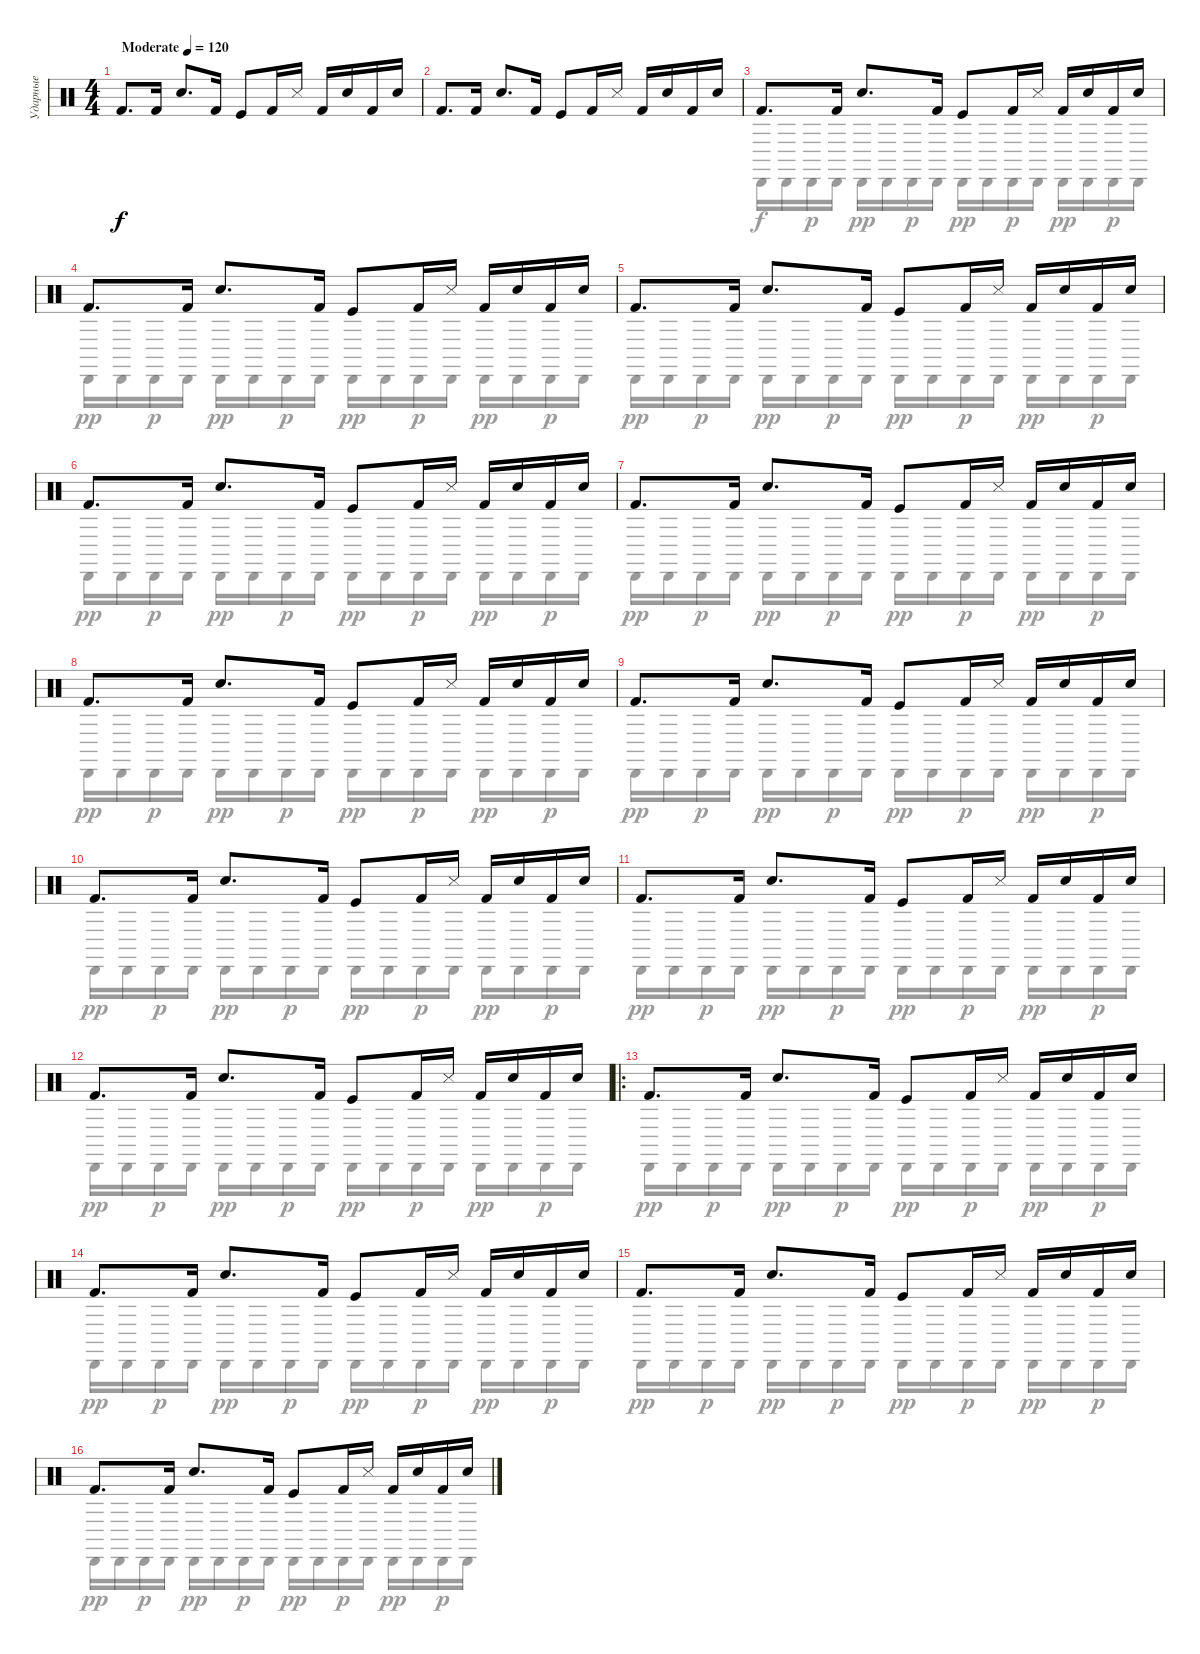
\track ("Ударные" "Ударные") {instrument percussion}
\staff {score}
\articulation defaults
\voice
\ts (4 4)
\tempo (120 "Moderate")
\clef neutral
\ks c "Kick (hit) 2".8{d dy f} "Kick (hit) 2".16 "Electric Snare (hit)".8{d} "Kick (hit) 2".16 "Kick (hit)".8 "Kick (hit) 2".16 "Metronome (hit)".16 "Kick (hit) 2".16 "Electric Snare (hit)".16 "Kick (hit) 2".16 "Electric Snare (hit)".16
|
"Kick (hit) 2".8{d} "Kick (hit) 2".16 "Electric Snare (hit)".8{d} "Kick (hit) 2".16 "Kick (hit)".8 "Kick (hit) 2".16 "Metronome (hit)".16 "Kick (hit) 2".16 "Electric Snare (hit)".16 "Kick (hit) 2".16 "Electric Snare (hit)".16 |
"Kick (hit) 2".8{d} "Kick (hit) 2".16 "Electric Snare (hit)".8{d} "Kick (hit) 2".16 "Kick (hit)".8 "Kick (hit) 2".16 "Metronome (hit)".16 "Kick (hit) 2".16 "Electric Snare (hit)".16 "Kick (hit) 2".16 "Electric Snare (hit)".16 |
"Kick (hit) 2".8{d} "Kick (hit) 2".16 "Electric Snare (hit)".8{d} "Kick (hit) 2".16 "Kick (hit)".8 "Kick (hit) 2".16 "Metronome (hit)".16 "Kick (hit) 2".16 "Electric Snare (hit)".16 "Kick (hit) 2".16 "Electric Snare (hit)".16 |
"Kick (hit) 2".8{d} "Kick (hit) 2".16 "Electric Snare (hit)".8{d} "Kick (hit) 2".16 "Kick (hit)".8 "Kick (hit) 2".16 "Metronome (hit)".16 "Kick (hit) 2".16 "Electric Snare (hit)".16 "Kick (hit) 2".16 "Electric Snare (hit)".16 |
"Kick (hit) 2".8{d} "Kick (hit) 2".16 "Electric Snare (hit)".8{d} "Kick (hit) 2".16 "Kick (hit)".8 "Kick (hit) 2".16 "Metronome (hit)".16 "Kick (hit) 2".16 "Electric Snare (hit)".16 "Kick (hit) 2".16 "Electric Snare (hit)".16 |
"Kick (hit) 2".8{d} "Kick (hit) 2".16 "Electric Snare (hit)".8{d} "Kick (hit) 2".16 "Kick (hit)".8 "Kick (hit) 2".16 "Metronome (hit)".16 "Kick (hit) 2".16 "Electric Snare (hit)".16 "Kick (hit) 2".16 "Electric Snare (hit)".16 |
"Kick (hit) 2".8{d} "Kick (hit) 2".16 "Electric Snare (hit)".8{d} "Kick (hit) 2".16 "Kick (hit)".8 "Kick (hit) 2".16 "Metronome (hit)".16 "Kick (hit) 2".16 "Electric Snare (hit)".16 "Kick (hit) 2".16 "Electric Snare (hit)".16 |
"Kick (hit) 2".8{d} "Kick (hit) 2".16 "Electric Snare (hit)".8{d} "Kick (hit) 2".16 "Kick (hit)".8 "Kick (hit) 2".16 "Metronome (hit)".16 "Kick (hit) 2".16 "Electric Snare (hit)".16 "Kick (hit) 2".16 "Electric Snare (hit)".16 |
"Kick (hit) 2".8{d} "Kick (hit) 2".16 "Electric Snare (hit)".8{d} "Kick (hit) 2".16 "Kick (hit)".8 "Kick (hit) 2".16 "Metronome (hit)".16 "Kick (hit) 2".16 "Electric Snare (hit)".16 "Kick (hit) 2".16 "Electric Snare (hit)".16 |
"Kick (hit) 2".8{d} "Kick (hit) 2".16 "Electric Snare (hit)".8{d} "Kick (hit) 2".16 "Kick (hit)".8 "Kick (hit) 2".16 "Metronome (hit)".16 "Kick (hit) 2".16 "Electric Snare (hit)".16 "Kick (hit) 2".16 "Electric Snare (hit)".16 |
"Kick (hit) 2".8{d} "Kick (hit) 2".16 "Electric Snare (hit)".8{d} "Kick (hit) 2".16 "Kick (hit)".8 "Kick (hit) 2".16 "Metronome (hit)".16 "Kick (hit) 2".16 "Electric Snare (hit)".16 "Kick (hit) 2".16 "Electric Snare (hit)".16 |
\ro "Kick (hit) 2".8{d} "Kick (hit) 2".16 "Electric Snare (hit)".8{d} "Kick (hit) 2".16 "Kick (hit)".8 "Kick (hit) 2".16 "Metronome (hit)".16 "Kick (hit) 2".16 "Electric Snare (hit)".16 "Kick (hit) 2".16 "Electric Snare (hit)".16
|
"Kick (hit) 2".8{d} "Kick (hit) 2".16 "Electric Snare (hit)".8{d} "Kick (hit) 2".16 "Kick (hit)".8 "Kick (hit) 2".16 "Metronome (hit)".16 "Kick (hit) 2".16 "Electric Snare (hit)".16 "Kick (hit) 2".16 "Electric Snare (hit)".16 |
"Kick (hit) 2".8{d} "Kick (hit) 2".16 "Electric Snare (hit)".8{d} "Kick (hit) 2".16 "Kick (hit)".8 "Kick (hit) 2".16 "Metronome (hit)".16 "Kick (hit) 2".16 "Electric Snare (hit)".16 "Kick (hit) 2".16 "Electric Snare (hit)".16 |
"Kick (hit) 2".8{d} "Kick (hit) 2".16 "Electric Snare (hit)".8{d} "Kick (hit) 2".16 "Kick (hit)".8 "Kick (hit) 2".16 "Metronome (hit)".16 "Kick (hit) 2".16 "Electric Snare (hit)".16 "Kick (hit) 2".16 "Electric Snare (hit)".16
\voice
\clef neutral
\ottava regular
\simile none
\ks c
|
|
"Cabasa (hit)".16 "Cabasa (hit)".16 "Cabasa (hit)".16{dy p} "Cabasa (hit)".16 "Cabasa (hit)".16{dy pp} "Cabasa (hit)".16 "Cabasa (hit)".16{dy p} "Cabasa (hit)".16 "Cabasa (hit)".16{dy pp} "Cabasa (hit)".16 "Cabasa (hit)".16{dy p} "Cabasa (hit)".16 "Cabasa (hit)".16{dy pp} "Cabasa (hit)".16 "Cabasa (hit)".16{dy p} "Cabasa (hit)".16 |
"Cabasa (hit)".16{dy pp} "Cabasa (hit)".16 "Cabasa (hit)".16{dy p} "Cabasa (hit)".16 "Cabasa (hit)".16{dy pp} "Cabasa (hit)".16 "Cabasa (hit)".16{dy p} "Cabasa (hit)".16 "Cabasa (hit)".16{dy pp} "Cabasa (hit)".16 "Cabasa (hit)".16{dy p} "Cabasa (hit)".16 "Cabasa (hit)".16{dy pp} "Cabasa (hit)".16 "Cabasa (hit)".16{dy p} "Cabasa (hit)".16 |
"Cabasa (hit)".16{dy pp} "Cabasa (hit)".16 "Cabasa (hit)".16{dy p} "Cabasa (hit)".16 "Cabasa (hit)".16{dy pp} "Cabasa (hit)".16 "Cabasa (hit)".16{dy p} "Cabasa (hit)".16 "Cabasa (hit)".16{dy pp} "Cabasa (hit)".16 "Cabasa (hit)".16{dy p} "Cabasa (hit)".16 "Cabasa (hit)".16{dy pp} "Cabasa (hit)".16 "Cabasa (hit)".16{dy p} "Cabasa (hit)".16 |
"Cabasa (hit)".16{dy pp} "Cabasa (hit)".16 "Cabasa (hit)".16{dy p} "Cabasa (hit)".16 "Cabasa (hit)".16{dy pp} "Cabasa (hit)".16 "Cabasa (hit)".16{dy p} "Cabasa (hit)".16 "Cabasa (hit)".16{dy pp} "Cabasa (hit)".16 "Cabasa (hit)".16{dy p} "Cabasa (hit)".16 "Cabasa (hit)".16{dy pp} "Cabasa (hit)".16 "Cabasa (hit)".16{dy p} "Cabasa (hit)".16 |
"Cabasa (hit)".16{dy pp} "Cabasa (hit)".16 "Cabasa (hit)".16{dy p} "Cabasa (hit)".16 "Cabasa (hit)".16{dy pp} "Cabasa (hit)".16 "Cabasa (hit)".16{dy p} "Cabasa (hit)".16 "Cabasa (hit)".16{dy pp} "Cabasa (hit)".16 "Cabasa (hit)".16{dy p} "Cabasa (hit)".16 "Cabasa (hit)".16{dy pp} "Cabasa (hit)".16 "Cabasa (hit)".16{dy p} "Cabasa (hit)".16 |
"Cabasa (hit)".16{dy pp} "Cabasa (hit)".16 "Cabasa (hit)".16{dy p} "Cabasa (hit)".16 "Cabasa (hit)".16{dy pp} "Cabasa (hit)".16 "Cabasa (hit)".16{dy p} "Cabasa (hit)".16 "Cabasa (hit)".16{dy pp} "Cabasa (hit)".16 "Cabasa (hit)".16{dy p} "Cabasa (hit)".16 "Cabasa (hit)".16{dy pp} "Cabasa (hit)".16 "Cabasa (hit)".16{dy p} "Cabasa (hit)".16 |
"Cabasa (hit)".16{dy pp} "Cabasa (hit)".16 "Cabasa (hit)".16{dy p} "Cabasa (hit)".16 "Cabasa (hit)".16{dy pp} "Cabasa (hit)".16 "Cabasa (hit)".16{dy p} "Cabasa (hit)".16 "Cabasa (hit)".16{dy pp} "Cabasa (hit)".16 "Cabasa (hit)".16{dy p} "Cabasa (hit)".16 "Cabasa (hit)".16{dy pp} "Cabasa (hit)".16 "Cabasa (hit)".16{dy p} "Cabasa (hit)".16 |
"Cabasa (hit)".16{dy pp} "Cabasa (hit)".16 "Cabasa (hit)".16{dy p} "Cabasa (hit)".16 "Cabasa (hit)".16{dy pp} "Cabasa (hit)".16 "Cabasa (hit)".16{dy p} "Cabasa (hit)".16 "Cabasa (hit)".16{dy pp} "Cabasa (hit)".16 "Cabasa (hit)".16{dy p} "Cabasa (hit)".16 "Cabasa (hit)".16{dy pp} "Cabasa (hit)".16 "Cabasa (hit)".16{dy p} "Cabasa (hit)".16 |
"Cabasa (hit)".16{dy pp} "Cabasa (hit)".16 "Cabasa (hit)".16{dy p} "Cabasa (hit)".16 "Cabasa (hit)".16{dy pp} "Cabasa (hit)".16 "Cabasa (hit)".16{dy p} "Cabasa (hit)".16 "Cabasa (hit)".16{dy pp} "Cabasa (hit)".16 "Cabasa (hit)".16{dy p} "Cabasa (hit)".16 "Cabasa (hit)".16{dy pp} "Cabasa (hit)".16 "Cabasa (hit)".16{dy p} "Cabasa (hit)".16 |
"Cabasa (hit)".16{dy pp} "Cabasa (hit)".16 "Cabasa (hit)".16{dy p} "Cabasa (hit)".16 "Cabasa (hit)".16{dy pp} "Cabasa (hit)".16 "Cabasa (hit)".16{dy p} "Cabasa (hit)".16 "Cabasa (hit)".16{dy pp} "Cabasa (hit)".16 "Cabasa (hit)".16{dy p} "Cabasa (hit)".16 "Cabasa (hit)".16{dy pp} "Cabasa (hit)".16 "Cabasa (hit)".16{dy p} "Cabasa (hit)".16 |
"Cabasa (hit)".16{dy pp} "Cabasa (hit)".16 "Cabasa (hit)".16{dy p} "Cabasa (hit)".16 "Cabasa (hit)".16{dy pp} "Cabasa (hit)".16 "Cabasa (hit)".16{dy p} "Cabasa (hit)".16 "Cabasa (hit)".16{dy pp} "Cabasa (hit)".16 "Cabasa (hit)".16{dy p} "Cabasa (hit)".16 "Cabasa (hit)".16{dy pp} "Cabasa (hit)".16 "Cabasa (hit)".16{dy p} "Cabasa (hit)".16 |
"Cabasa (hit)".16{dy pp} "Cabasa (hit)".16 "Cabasa (hit)".16{dy p} "Cabasa (hit)".16 "Cabasa (hit)".16{dy pp} "Cabasa (hit)".16 "Cabasa (hit)".16{dy p} "Cabasa (hit)".16 "Cabasa (hit)".16{dy pp} "Cabasa (hit)".16 "Cabasa (hit)".16{dy p} "Cabasa (hit)".16 "Cabasa (hit)".16{dy pp} "Cabasa (hit)".16 "Cabasa (hit)".16{dy p} "Cabasa (hit)".16 |
"Cabasa (hit)".16{dy pp} "Cabasa (hit)".16 "Cabasa (hit)".16{dy p} "Cabasa (hit)".16 "Cabasa (hit)".16{dy pp} "Cabasa (hit)".16 "Cabasa (hit)".16{dy p} "Cabasa (hit)".16 "Cabasa (hit)".16{dy pp} "Cabasa (hit)".16 "Cabasa (hit)".16{dy p} "Cabasa (hit)".16 "Cabasa (hit)".16{dy pp} "Cabasa (hit)".16 "Cabasa (hit)".16{dy p} "Cabasa (hit)".16 |
"Cabasa (hit)".16{dy pp} "Cabasa (hit)".16 "Cabasa (hit)".16{dy p} "Cabasa (hit)".16 "Cabasa (hit)".16{dy pp} "Cabasa (hit)".16 "Cabasa (hit)".16{dy p} "Cabasa (hit)".16 "Cabasa (hit)".16{dy pp} "Cabasa (hit)".16 "Cabasa (hit)".16{dy p} "Cabasa (hit)".16 "Cabasa (hit)".16{dy pp} "Cabasa (hit)".16 "Cabasa (hit)".16{dy p} "Cabasa (hit)".16
